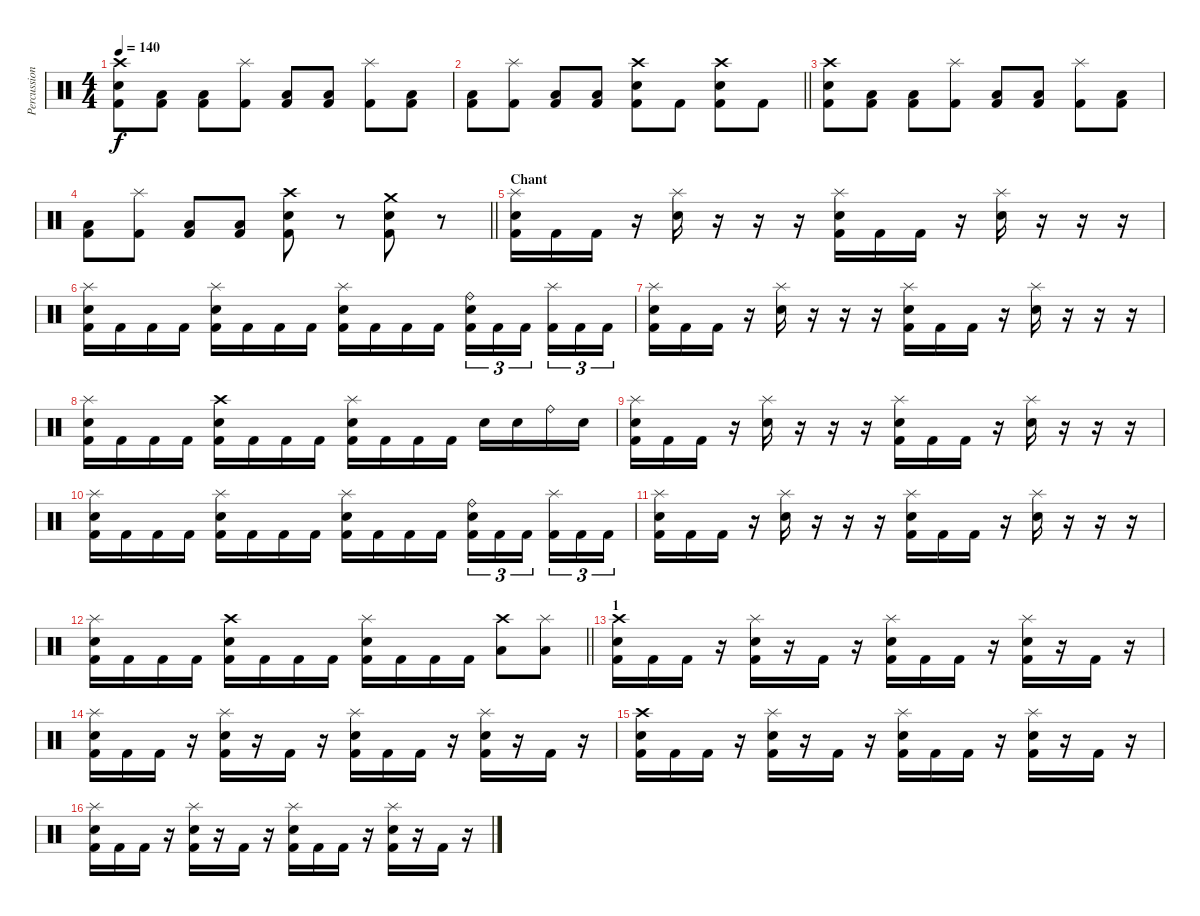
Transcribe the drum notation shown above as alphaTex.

\track ("Percussion" "Percussion") {instrument percussion}
\staff {score}
\articulation defaults
\ts (4 4)
\tempo 140
\clef neutral
\ks c
("Crash high (hit)" "Snare (hit) 2" "Kick (hit) 2").8{dy f} ("Low Tom (hit)" "Kick (hit) 2").8 ("Low Floor Tom (hit)" "Kick (hit) 2").8 ("Splash (hit)" "Kick (hit) 2").8 ("Low Tom (hit)" "Kick (hit) 2").8 ("Low Floor Tom (hit)" "Kick (hit) 2").8 ("Splash (hit)" "Kick (hit) 2").8 ("Low Tom (hit)" "Kick (hit) 2").8 |
\barLineRight lightlight
("Low Floor Tom (hit)" "Kick (hit) 2").8 ("Splash (hit)" "Kick (hit) 2").8 ("Low Tom (hit)" "Kick (hit) 2").8 ("Low Floor Tom (hit)" "Kick (hit) 2").8 ("Crash high (hit)" "Snare (hit) 2" "Kick (hit) 2").8 "Kick (hit) 2".8 ("Crash high (hit)" "Snare (hit) 2" "Kick (hit) 2").8 "Kick (hit) 2".8 |
("Crash high (hit)" "Snare (hit) 2" "Kick (hit) 2").8 ("Low Tom (hit)" "Kick (hit) 2").8 ("Low Floor Tom (hit)" "Kick (hit) 2").8 ("Splash (hit)" "Kick (hit) 2").8 ("Low Tom (hit)" "Kick (hit) 2").8 ("Low Floor Tom (hit)" "Kick (hit) 2").8 ("Splash (hit)" "Kick (hit) 2").8 ("Low Tom (hit)" "Kick (hit) 2").8 |
\barLineRight lightlight
("Low Floor Tom (hit)" "Kick (hit) 2").8 ("Splash (hit)" "Kick (hit) 2").8 ("Low Tom (hit)" "Kick (hit) 2").8 ("Low Floor Tom (hit)" "Kick (hit) 2").8 ("Crash high (hit)" "Snare (hit) 2" "Kick (hit) 2").8 r.8 ("Crash medium (hit)" "Snare (hit) 2" "Kick (hit) 2").8 r.8 |
\section ("" "Chant")
("Splash (hit)" "Snare (hit) 2" "Kick (hit) 2").16 "Kick (hit) 2".16 "Kick (hit) 2".16 r.16 ("Splash (hit)" "Snare (hit) 2").16 r.16 r.16 r.16 ("Splash (hit)" "Snare (hit) 2" "Kick (hit) 2").16 "Kick (hit) 2".16 "Kick (hit) 2".16 r.16 ("Splash (hit)" "Snare (hit) 2").16 r.16 r.16 r.16 |
("Splash (hit)" "Snare (hit) 2" "Kick (hit) 2").16 "Kick (hit) 2".16 "Kick (hit) 2".16 "Kick (hit) 2".16 ("Splash (hit)" "Snare (hit) 2" "Kick (hit) 2").16 "Kick (hit) 2".16 "Kick (hit) 2".16 "Kick (hit) 2".16 ("Splash (hit)" "Snare (hit) 2" "Kick (hit) 2").16 "Kick (hit) 2".16 "Kick (hit) 2".16 "Kick (hit) 2".16 ("Ride (bell)" "Snare (hit) 2" "Kick (hit) 2").16{tu (3 2)} "Kick (hit) 2".16{tu (3 2)} "Kick (hit) 2".16{tu (3 2) beam splitsecondary} ("Splash (hit)" "Kick (hit) 2").16{tu (3 2)} "Kick (hit) 2".16{tu (3 2)} "Kick (hit) 2".16{tu (3 2)} |
("Splash (hit)" "Snare (hit) 2" "Kick (hit) 2").16 "Kick (hit) 2".16 "Kick (hit) 2".16 r.16 ("Splash (hit)" "Snare (hit) 2").16 r.16 r.16 r.16 ("Splash (hit)" "Snare (hit) 2" "Kick (hit) 2").16 "Kick (hit) 2".16 "Kick (hit) 2".16 r.16 ("Splash (hit)" "Snare (hit) 2").16 r.16 r.16 r.16 |
("Splash (hit)" "Snare (hit) 2" "Kick (hit) 2").16 "Kick (hit) 2".16 "Kick (hit) 2".16 "Kick (hit) 2".16 ("Crash high (hit)" "Snare (hit) 2" "Kick (hit) 2").16 "Kick (hit) 2".16 "Kick (hit) 2".16 "Kick (hit) 2".16 ("Splash (hit)" "Snare (hit) 2" "Kick (hit) 2").16 "Kick (hit) 2".16 "Kick (hit) 2".16 "Kick (hit) 2".16 "Snare (hit) 2".16 "Snare (hit) 2".16 "Ride (bell)".16 "Snare (hit) 2".16 |
("Splash (hit)" "Snare (hit) 2" "Kick (hit) 2").16 "Kick (hit) 2".16 "Kick (hit) 2".16 r.16 ("Splash (hit)" "Snare (hit) 2").16 r.16 r.16 r.16 ("Splash (hit)" "Snare (hit) 2" "Kick (hit) 2").16 "Kick (hit) 2".16 "Kick (hit) 2".16 r.16 ("Splash (hit)" "Snare (hit) 2").16 r.16 r.16 r.16 |
("Splash (hit)" "Snare (hit) 2" "Kick (hit) 2").16 "Kick (hit) 2".16 "Kick (hit) 2".16 "Kick (hit) 2".16 ("Splash (hit)" "Snare (hit) 2" "Kick (hit) 2").16 "Kick (hit) 2".16 "Kick (hit) 2".16 "Kick (hit) 2".16 ("Splash (hit)" "Snare (hit) 2" "Kick (hit) 2").16 "Kick (hit) 2".16 "Kick (hit) 2".16 "Kick (hit) 2".16 ("Ride (bell)" "Snare (hit) 2" "Kick (hit) 2").16{tu (3 2)} "Kick (hit) 2".16{tu (3 2)} "Kick (hit) 2".16{tu (3 2) beam splitsecondary} ("Splash (hit)" "Kick (hit) 2").16{tu (3 2)} "Kick (hit) 2".16{tu (3 2)} "Kick (hit) 2".16{tu (3 2)} |
("Splash (hit)" "Snare (hit) 2" "Kick (hit) 2").16 "Kick (hit) 2".16 "Kick (hit) 2".16 r.16 ("Splash (hit)" "Snare (hit) 2").16 r.16 r.16 r.16 ("Splash (hit)" "Snare (hit) 2" "Kick (hit) 2").16 "Kick (hit) 2".16 "Kick (hit) 2".16 r.16 ("Splash (hit)" "Snare (hit) 2").16 r.16 r.16 r.16 |
\barLineRight lightlight
("Splash (hit)" "Snare (hit) 2" "Kick (hit) 2").16 "Kick (hit) 2".16 "Kick (hit) 2".16 "Kick (hit) 2".16 ("Crash high (hit)" "Snare (hit) 2" "Kick (hit) 2").16 "Kick (hit) 2".16 "Kick (hit) 2".16 "Kick (hit) 2".16 ("Splash (hit)" "Snare (hit) 2" "Kick (hit) 2").16 "Kick (hit) 2".16 "Kick (hit) 2".16 "Kick (hit) 2".16 ("Crash high (hit)" "Low Tom (hit)").8 ("Splash (hit)" "Low Floor Tom (hit)").8 |
\section ("" "1")
("Crash high (hit)" "Snare (hit) 2" "Kick (hit) 2").16 "Kick (hit) 2".16 "Kick (hit) 2".16 r.16 ("Splash (hit)" "Snare (hit) 2" "Kick (hit) 2").16 r.16 "Kick (hit) 2".16 r.16 ("Splash (hit)" "Snare (hit) 2" "Kick (hit) 2").16 "Kick (hit) 2".16 "Kick (hit) 2".16 r.16 ("Splash (hit)" "Snare (hit) 2" "Kick (hit) 2").16 r.16 "Kick (hit) 2".16 r.16 |
("Splash (hit)" "Snare (hit) 2" "Kick (hit) 2").16 "Kick (hit) 2".16 "Kick (hit) 2".16 r.16 ("Splash (hit)" "Snare (hit) 2" "Kick (hit) 2").16 r.16 "Kick (hit) 2".16 r.16 ("Splash (hit)" "Snare (hit) 2" "Kick (hit) 2").16 "Kick (hit) 2".16 "Kick (hit) 2".16 r.16 ("Splash (hit)" "Snare (hit) 2" "Kick (hit) 2").16 r.16 "Kick (hit) 2".16 r.16 |
("Crash high (hit)" "Snare (hit) 2" "Kick (hit) 2").16 "Kick (hit) 2".16 "Kick (hit) 2".16 r.16 ("Splash (hit)" "Snare (hit) 2" "Kick (hit) 2").16 r.16 "Kick (hit) 2".16 r.16 ("Splash (hit)" "Snare (hit) 2" "Kick (hit) 2").16 "Kick (hit) 2".16 "Kick (hit) 2".16 r.16 ("Splash (hit)" "Snare (hit) 2" "Kick (hit) 2").16 r.16 "Kick (hit) 2".16 r.16 |
("Splash (hit)" "Snare (hit) 2" "Kick (hit) 2").16 "Kick (hit) 2".16 "Kick (hit) 2".16 r.16 ("Splash (hit)" "Snare (hit) 2" "Kick (hit) 2").16 r.16 "Kick (hit) 2".16 r.16 ("Splash (hit)" "Snare (hit) 2" "Kick (hit) 2").16 "Kick (hit) 2".16 "Kick (hit) 2".16 r.16 ("Splash (hit)" "Snare (hit) 2" "Kick (hit) 2").16 r.16 "Kick (hit) 2".16 r.16
